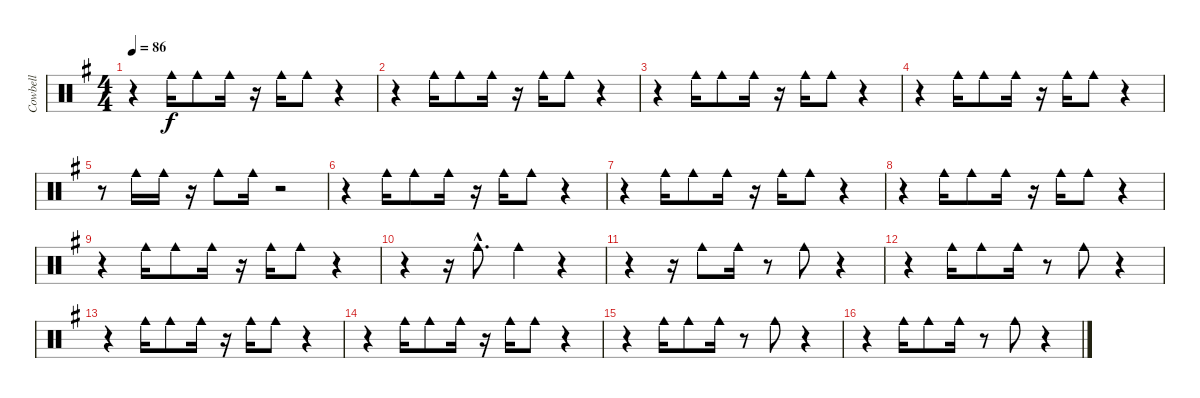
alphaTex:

\track ("Cowbell" "Cowbell") {instrument percussion}
\staff {score}
\articulation defaults
\ts (4 4)
\tempo 86
\clef neutral
\ks g
r.4{dy f} "Cowbell medium (hit)".16 "Cowbell medium (hit)".8 "Cowbell medium (hit)".16 r.16 "Cowbell medium (hit)".16 "Cowbell medium (hit)".8 r.4 |
r.4 "Cowbell medium (hit)".16 "Cowbell medium (hit)".8 "Cowbell medium (hit)".16 r.16 "Cowbell medium (hit)".16 "Cowbell medium (hit)".8 r.4 |
r.4 "Cowbell medium (hit)".16 "Cowbell medium (hit)".8 "Cowbell medium (hit)".16 r.16 "Cowbell medium (hit)".16 "Cowbell medium (hit)".8 r.4 |
r.4 "Cowbell medium (hit)".16 "Cowbell medium (hit)".8 "Cowbell medium (hit)".16 r.16 "Cowbell medium (hit)".16 "Cowbell medium (hit)".8 r.4 |
r.8 "Cowbell medium (hit)".16 "Cowbell medium (hit)".16 r.16 "Cowbell medium (hit)".8 "Cowbell medium (hit)".16 r.2 |
r.4 "Cowbell medium (hit)".16 "Cowbell medium (hit)".8 "Cowbell medium (hit)".16 r.16 "Cowbell medium (hit)".16 "Cowbell medium (hit)".8 r.4 |
r.4 "Cowbell medium (hit)".16 "Cowbell medium (hit)".8 "Cowbell medium (hit)".16 r.16 "Cowbell medium (hit)".16 "Cowbell medium (hit)".8 r.4 |
r.4 "Cowbell medium (hit)".16 "Cowbell medium (hit)".8 "Cowbell medium (hit)".16 r.16 "Cowbell medium (hit)".16 "Cowbell medium (hit)".8 r.4 |
r.4 "Cowbell medium (hit)".16 "Cowbell medium (hit)".8 "Cowbell medium (hit)".16 r.16 "Cowbell medium (hit)".16 "Cowbell medium (hit)".8 r.4 |
r.4 r.16 "Cowbell medium (hit)"{hac}.8{d} "Cowbell medium (hit)".4 r.4 |
r.4 r.16 "Cowbell medium (hit)".8 "Cowbell medium (hit)".16 r.8 "Cowbell medium (hit)".8 r.4 |
r.4 "Cowbell medium (hit)".16 "Cowbell medium (hit)".8 "Cowbell medium (hit)".16 r.8 "Cowbell medium (hit)".8 r.4 |
r.4 "Cowbell medium (hit)".16 "Cowbell medium (hit)".8 "Cowbell medium (hit)".16 r.16 "Cowbell medium (hit)".16 "Cowbell medium (hit)".8 r.4 |
r.4 "Cowbell medium (hit)".16 "Cowbell medium (hit)".8 "Cowbell medium (hit)".16 r.16 "Cowbell medium (hit)".16 "Cowbell medium (hit)".8 r.4 |
r.4 "Cowbell medium (hit)".16 "Cowbell medium (hit)".8 "Cowbell medium (hit)".16 r.8 "Cowbell medium (hit)".8 r.4 |
r.4 "Cowbell medium (hit)".16 "Cowbell medium (hit)".8 "Cowbell medium (hit)".16 r.8 "Cowbell medium (hit)".8 r.4
